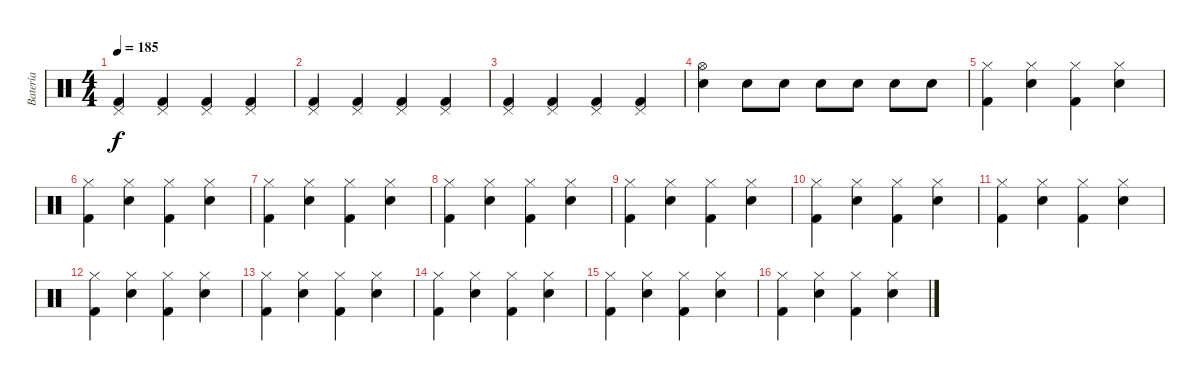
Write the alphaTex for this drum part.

\track ("Batería" "Batería") {instrument percussion}
\staff {score}
\articulation defaults
\ts (4 4)
\tempo 185
\clef neutral
\ks c
("Pedal Hi-Hat (hit)" "Kick (hit) 2").4{dy f} ("Pedal Hi-Hat (hit)" "Kick (hit) 2").4 ("Pedal Hi-Hat (hit)" "Kick (hit) 2").4 ("Pedal Hi-Hat (hit)" "Kick (hit) 2").4 |
("Pedal Hi-Hat (hit)" "Kick (hit) 2").4 ("Pedal Hi-Hat (hit)" "Kick (hit) 2").4 ("Pedal Hi-Hat (hit)" "Kick (hit) 2").4 ("Pedal Hi-Hat (hit)" "Kick (hit) 2").4 |
("Pedal Hi-Hat (hit)" "Kick (hit) 2").4 ("Pedal Hi-Hat (hit)" "Kick (hit) 2").4 ("Pedal Hi-Hat (hit)" "Kick (hit) 2").4 ("Pedal Hi-Hat (hit)" "Kick (hit) 2").4 |
("Hi-Hat (open)" "Snare (hit) 2").4 "Snare (hit) 2".8 "Snare (hit) 2".8 "Snare (hit) 2".8 "Snare (hit) 2".8 "Snare (hit) 2".8 "Snare (hit) 2".8 |
("Hi-Hat (closed)" "Kick (hit) 2").4 ("Hi-Hat (closed)" "Snare (hit) 2").4 ("Hi-Hat (closed)" "Kick (hit) 2").4 ("Hi-Hat (closed)" "Snare (hit) 2").4 |
("Hi-Hat (closed)" "Kick (hit) 2").4 ("Hi-Hat (closed)" "Snare (hit) 2").4 ("Hi-Hat (closed)" "Kick (hit) 2").4 ("Hi-Hat (closed)" "Snare (hit) 2").4 |
("Hi-Hat (closed)" "Kick (hit) 2").4 ("Hi-Hat (closed)" "Snare (hit) 2").4 ("Hi-Hat (closed)" "Kick (hit) 2").4 ("Hi-Hat (closed)" "Snare (hit) 2").4 |
("Hi-Hat (closed)" "Kick (hit) 2").4 ("Hi-Hat (closed)" "Snare (hit) 2").4 ("Hi-Hat (closed)" "Kick (hit) 2").4 ("Hi-Hat (closed)" "Snare (hit) 2").4 |
("Hi-Hat (closed)" "Kick (hit) 2").4 ("Hi-Hat (closed)" "Snare (hit) 2").4 ("Hi-Hat (closed)" "Kick (hit) 2").4 ("Hi-Hat (closed)" "Snare (hit) 2").4 |
("Hi-Hat (closed)" "Kick (hit) 2").4 ("Hi-Hat (closed)" "Snare (hit) 2").4 ("Hi-Hat (closed)" "Kick (hit) 2").4 ("Hi-Hat (closed)" "Snare (hit) 2").4 |
("Hi-Hat (closed)" "Kick (hit) 2").4 ("Hi-Hat (closed)" "Snare (hit) 2").4 ("Hi-Hat (closed)" "Kick (hit) 2").4 ("Hi-Hat (closed)" "Snare (hit) 2").4 |
("Hi-Hat (closed)" "Kick (hit) 2").4 ("Hi-Hat (closed)" "Snare (hit) 2").4 ("Hi-Hat (closed)" "Kick (hit) 2").4 ("Hi-Hat (closed)" "Snare (hit) 2").4 |
("Hi-Hat (closed)" "Kick (hit) 2").4 ("Hi-Hat (closed)" "Snare (hit) 2").4 ("Hi-Hat (closed)" "Kick (hit) 2").4 ("Hi-Hat (closed)" "Snare (hit) 2").4 |
("Hi-Hat (closed)" "Kick (hit) 2").4 ("Hi-Hat (closed)" "Snare (hit) 2").4 ("Hi-Hat (closed)" "Kick (hit) 2").4 ("Hi-Hat (closed)" "Snare (hit) 2").4 |
("Hi-Hat (closed)" "Kick (hit) 2").4 ("Hi-Hat (closed)" "Snare (hit) 2").4 ("Hi-Hat (closed)" "Kick (hit) 2").4 ("Hi-Hat (closed)" "Snare (hit) 2").4 |
("Hi-Hat (closed)" "Kick (hit) 2").4 ("Hi-Hat (closed)" "Snare (hit) 2").4 ("Hi-Hat (closed)" "Kick (hit) 2").4 ("Hi-Hat (closed)" "Snare (hit) 2").4
